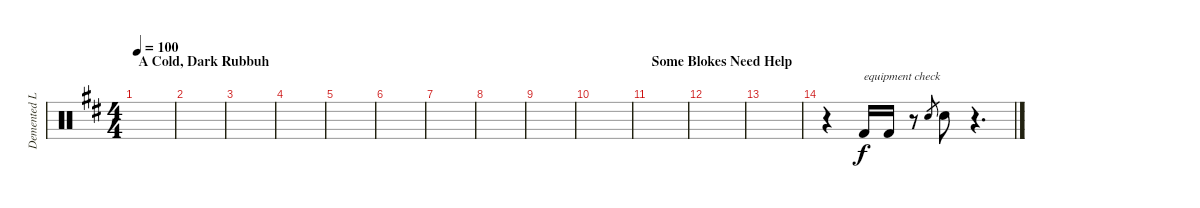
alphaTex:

\track ("Demented Leming (Drums)" "Demented L") {instrument percussion}
\staff {score}
\articulation defaults
\ts (4 4)
\section ("" "A Cold, Dark Rubbuh")
\tempo 100
\clef neutral
\ks d
|
|
|
|
|
|
|
|
|
|
\section ("" "Some Blokes Need Help")
|
|
|
r.4 "Kick (hit) 2".16{txt "equipment check"} "Kick (hit) 2".16 r.8 "Snare (hit) 2".8{gr} "Snare (hit) 2".8 r.4{d}
